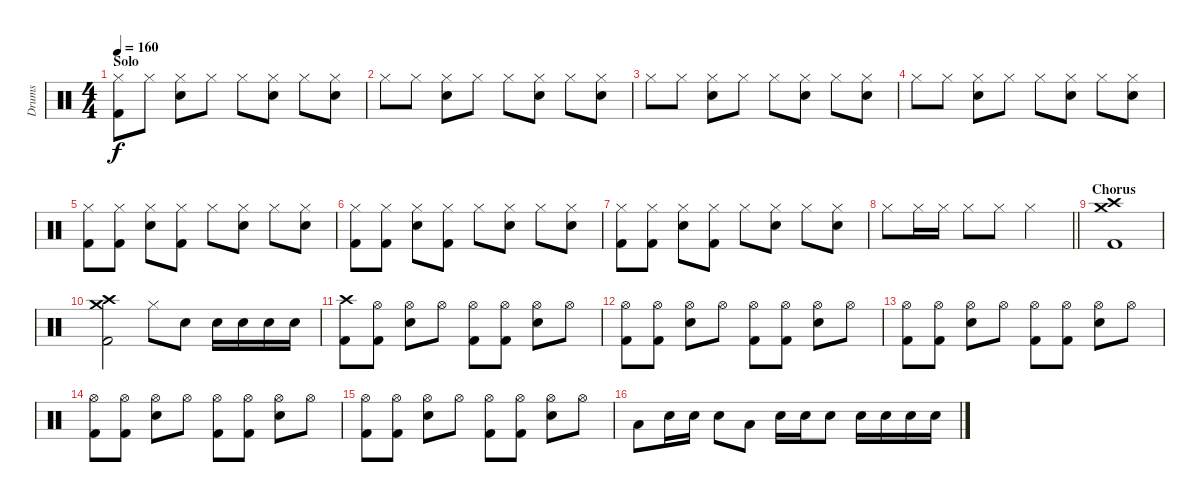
\track ("Drums" "Drums") {instrument percussion}
\staff {score}
\articulation defaults
\ts (4 4)
\section ("" "Solo")
\tempo 160
\clef neutral
\ks c
("Hi-Hat (closed)" "Kick (hit) 2").8{dy f} "Hi-Hat (closed)".8 ("Hi-Hat (closed)" "Snare (hit) 2").8 "Hi-Hat (closed)".8 "Hi-Hat (closed)".8 ("Hi-Hat (closed)" "Snare (hit) 2").8 "Hi-Hat (closed)".8 ("Hi-Hat (closed)" "Snare (hit) 2").8 |
"Hi-Hat (closed)".8 "Hi-Hat (closed)".8 ("Hi-Hat (closed)" "Snare (hit) 2").8 "Hi-Hat (closed)".8 "Hi-Hat (closed)".8 ("Hi-Hat (closed)" "Snare (hit) 2").8 "Hi-Hat (closed)".8 ("Hi-Hat (closed)" "Snare (hit) 2").8 |
"Hi-Hat (closed)".8 "Hi-Hat (closed)".8 ("Hi-Hat (closed)" "Snare (hit) 2").8 "Hi-Hat (closed)".8 "Hi-Hat (closed)".8 ("Hi-Hat (closed)" "Snare (hit) 2").8 "Hi-Hat (closed)".8 ("Hi-Hat (closed)" "Snare (hit) 2").8 |
"Hi-Hat (closed)".8 "Hi-Hat (closed)".8 ("Hi-Hat (closed)" "Snare (hit) 2").8 "Hi-Hat (closed)".8 "Hi-Hat (closed)".8 ("Hi-Hat (closed)" "Snare (hit) 2").8 "Hi-Hat (closed)".8 ("Hi-Hat (closed)" "Snare (hit) 2").8 |
("Hi-Hat (closed)" "Kick (hit) 2").8 ("Hi-Hat (closed)" "Kick (hit) 2").8 ("Hi-Hat (closed)" "Snare (hit) 2").8 ("Hi-Hat (closed)" "Kick (hit) 2").8 "Hi-Hat (closed)".8 ("Hi-Hat (closed)" "Snare (hit) 2").8 "Hi-Hat (closed)".8 ("Hi-Hat (closed)" "Snare (hit) 2").8 |
("Hi-Hat (closed)" "Kick (hit) 2").8 ("Hi-Hat (closed)" "Kick (hit) 2").8 ("Hi-Hat (closed)" "Snare (hit) 2").8 ("Hi-Hat (closed)" "Kick (hit) 2").8 "Hi-Hat (closed)".8 ("Hi-Hat (closed)" "Snare (hit) 2").8 "Hi-Hat (closed)".8 ("Hi-Hat (closed)" "Snare (hit) 2").8 |
("Hi-Hat (closed)" "Kick (hit) 2").8 ("Hi-Hat (closed)" "Kick (hit) 2").8 ("Hi-Hat (closed)" "Snare (hit) 2").8 ("Hi-Hat (closed)" "Kick (hit) 2").8 "Hi-Hat (closed)".8 ("Hi-Hat (closed)" "Snare (hit) 2").8 "Hi-Hat (closed)".8 ("Hi-Hat (closed)" "Snare (hit) 2").8 |
\barLineRight lightlight "Hi-Hat (closed)".8 "Hi-Hat (closed)".16 "Hi-Hat (closed)".16 "Hi-Hat (closed)".8 "Hi-Hat (closed)".8 "Hi-Hat (closed)".2
|
\section ("" "Chorus")
("Crash high (hit)" "Crash medium (hit)" "Kick (hit) 2").1 |
("Crash high (hit)" "Crash medium (hit)" "Kick (hit) 2").2 "Hi-Hat (closed)".8 "Snare (hit) 2".8 "Snare (hit) 2".16 "Snare (hit) 2".16 "Snare (hit) 2".16 "Snare (hit) 2".16 |
("Crash high (hit)" "Kick (hit) 2").8 ("Hi-Hat (open)" "Kick (hit) 2").8 ("Hi-Hat (open)" "Snare (hit) 2").8 "Hi-Hat (open)".8 ("Hi-Hat (open)" "Kick (hit) 2").8 ("Hi-Hat (open)" "Kick (hit) 2").8 ("Hi-Hat (open)" "Snare (hit) 2").8 "Hi-Hat (open)".8 |
("Hi-Hat (open)" "Kick (hit) 2").8 ("Hi-Hat (open)" "Kick (hit) 2").8 ("Hi-Hat (open)" "Snare (hit) 2").8 "Hi-Hat (open)".8 ("Hi-Hat (open)" "Kick (hit) 2").8 ("Hi-Hat (open)" "Kick (hit) 2").8 ("Hi-Hat (open)" "Snare (hit) 2").8 "Hi-Hat (open)".8 |
("Hi-Hat (open)" "Kick (hit) 2").8 ("Hi-Hat (open)" "Kick (hit) 2").8 ("Hi-Hat (open)" "Snare (hit) 2").8 "Hi-Hat (open)".8 ("Hi-Hat (open)" "Kick (hit) 2").8 ("Hi-Hat (open)" "Kick (hit) 2").8 ("Hi-Hat (open)" "Snare (hit) 2").8 "Hi-Hat (open)".8 |
("Hi-Hat (open)" "Kick (hit) 2").8 ("Hi-Hat (open)" "Kick (hit) 2").8 ("Hi-Hat (open)" "Snare (hit) 2").8 "Hi-Hat (open)".8 ("Hi-Hat (open)" "Kick (hit) 2").8 ("Hi-Hat (open)" "Kick (hit) 2").8 ("Hi-Hat (open)" "Snare (hit) 2").8 "Hi-Hat (open)".8 |
("Hi-Hat (open)" "Kick (hit) 2").8 ("Hi-Hat (open)" "Kick (hit) 2").8 ("Hi-Hat (open)" "Snare (hit) 2").8 "Hi-Hat (open)".8 ("Hi-Hat (open)" "Kick (hit) 2").8 ("Hi-Hat (open)" "Kick (hit) 2").8 ("Hi-Hat (open)" "Snare (hit) 2").8 "Hi-Hat (open)".8 |
"Low Tom (hit)".8 "Snare (hit) 2".16 "Snare (hit) 2".16 "Snare (hit) 2".8 "Low Tom (hit)".8 "Snare (hit) 2".16 "Snare (hit) 2".16 "Snare (hit) 2".8 "Snare (hit) 2".16 "Snare (hit) 2".16 "Snare (hit) 2".16 "Snare (hit) 2".16
